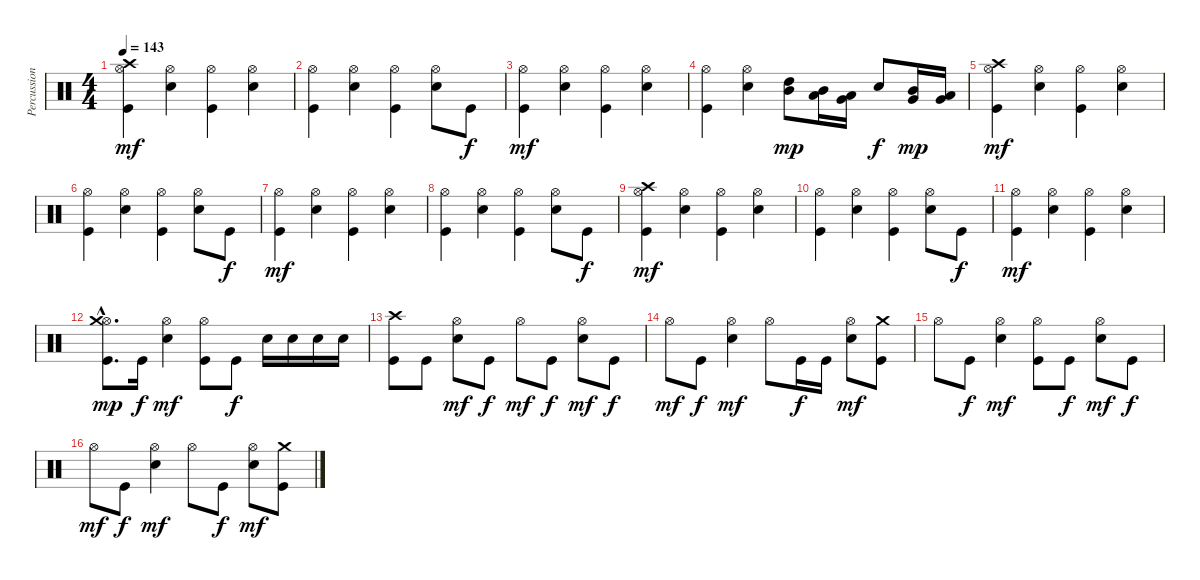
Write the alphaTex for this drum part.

\track ("Percussions" "Percussion") {instrument percussion}
\staff {score}
\articulation defaults
\ts (4 4)
\tempo 143
\clef neutral
\ks c
("Kick (hit)" "Hi-Hat (open)" "Crash high (hit)").4{dy mf} ("Electric Snare (hit)" "Hi-Hat (open)").4 ("Kick (hit)" "Hi-Hat (open)").4 ("Electric Snare (hit)" "Hi-Hat (open)").4 |
("Kick (hit)" "Hi-Hat (open)").4 ("Electric Snare (hit)" "Hi-Hat (open)").4 ("Kick (hit)" "Hi-Hat (open)").4 ("Electric Snare (hit)" "Hi-Hat (open)").8 "Kick (hit)".8{dy f} |
("Kick (hit)" "Hi-Hat (open)").4{dy mf} ("Electric Snare (hit)" "Hi-Hat (open)").4 ("Kick (hit)" "Hi-Hat (open)").4 ("Electric Snare (hit)" "Hi-Hat (open)").4 |
("Kick (hit)" "Hi-Hat (open)").4 ("Electric Snare (hit)" "Hi-Hat (open)").4 ("Mid Tom (hit)" "High Tom (hit)").8{dy mp} ("Low Tom (hit)" "Mid Tom (hit)").16 ("Very Low Tom (hit)" "Low Tom (hit)").16 "Electric Snare (hit)".8{dy f} ("Very Low Tom (hit)" "Mid Tom (hit)").16{dy mp} ("Very Low Tom (hit)" "Low Tom (hit)").16 |
("Kick (hit)" "Hi-Hat (open)" "Crash high (hit)").4{dy mf} ("Electric Snare (hit)" "Hi-Hat (open)").4 ("Kick (hit)" "Hi-Hat (open)").4 ("Electric Snare (hit)" "Hi-Hat (open)").4 |
("Kick (hit)" "Hi-Hat (open)").4 ("Electric Snare (hit)" "Hi-Hat (open)").4 ("Kick (hit)" "Hi-Hat (open)").4 ("Electric Snare (hit)" "Hi-Hat (open)").8 "Kick (hit)".8{dy f} |
("Kick (hit)" "Hi-Hat (open)").4{dy mf} ("Electric Snare (hit)" "Hi-Hat (open)").4 ("Kick (hit)" "Hi-Hat (open)").4 ("Electric Snare (hit)" "Hi-Hat (open)").4 |
("Kick (hit)" "Hi-Hat (open)").4 ("Electric Snare (hit)" "Hi-Hat (open)").4 ("Kick (hit)" "Hi-Hat (open)").4 ("Electric Snare (hit)" "Hi-Hat (open)").8 "Kick (hit)".8{dy f} |
("Kick (hit)" "Hi-Hat (open)" "Crash high (hit)").4{dy mf} ("Electric Snare (hit)" "Hi-Hat (open)").4 ("Kick (hit)" "Hi-Hat (open)").4 ("Electric Snare (hit)" "Hi-Hat (open)").4 |
("Kick (hit)" "Hi-Hat (open)").4 ("Electric Snare (hit)" "Hi-Hat (open)").4 ("Kick (hit)" "Hi-Hat (open)").4 ("Electric Snare (hit)" "Hi-Hat (open)").8 "Kick (hit)".8{dy f} |
("Kick (hit)" "Hi-Hat (open)").4{dy mf} ("Electric Snare (hit)" "Hi-Hat (open)").4 ("Kick (hit)" "Hi-Hat (open)").4 ("Electric Snare (hit)" "Hi-Hat (open)").4 |
("Kick (hit)"{hac} "Hi-Hat (open)"{hac} "Crash medium (hit)"{hac}).8{d dy mp} "Kick (hit)".16{dy f} ("Electric Snare (hit)" "Hi-Hat (open)").4{dy mf} ("Kick (hit)" "Hi-Hat (open)").8 "Kick (hit)".8{dy f} "Electric Snare (hit)".16 "Electric Snare (hit)".16 "Electric Snare (hit)".16 "Electric Snare (hit)".16 |
("Kick (hit)" "Crash high (hit)").8 "Kick (hit)".8 ("Electric Snare (hit)" "Hi-Hat (open)").8{dy mf} "Kick (hit)".8{dy f} "Hi-Hat (open)".8{dy mf} "Kick (hit)".8{dy f} ("Electric Snare (hit)" "Hi-Hat (open)").8{dy mf} "Kick (hit)".8{dy f} |
"Hi-Hat (open)".8{dy mf} "Kick (hit)".8{dy f} ("Electric Snare (hit)" "Hi-Hat (open)").4{dy mf} "Hi-Hat (open)".8 "Kick (hit)".16{dy f} "Kick (hit)".16 ("Electric Snare (hit)" "Hi-Hat (open)").8{dy mf} ("Kick (hit)" "Crash medium (hit)").8 |
"Hi-Hat (open)".8 "Kick (hit)".8{dy f} ("Electric Snare (hit)" "Hi-Hat (open)").4{dy mf} ("Kick (hit)" "Hi-Hat (open)").8 "Kick (hit)".8{dy f} ("Electric Snare (hit)" "Hi-Hat (open)").8{dy mf} "Kick (hit)".8{dy f} |
"Hi-Hat (open)".8{dy mf} "Kick (hit)".8{dy f} ("Electric Snare (hit)" "Hi-Hat (open)").4{dy mf} "Hi-Hat (open)".8 "Kick (hit)".8{dy f} ("Electric Snare (hit)" "Hi-Hat (open)").8{dy mf} ("Kick (hit)" "Crash medium (hit)").8
